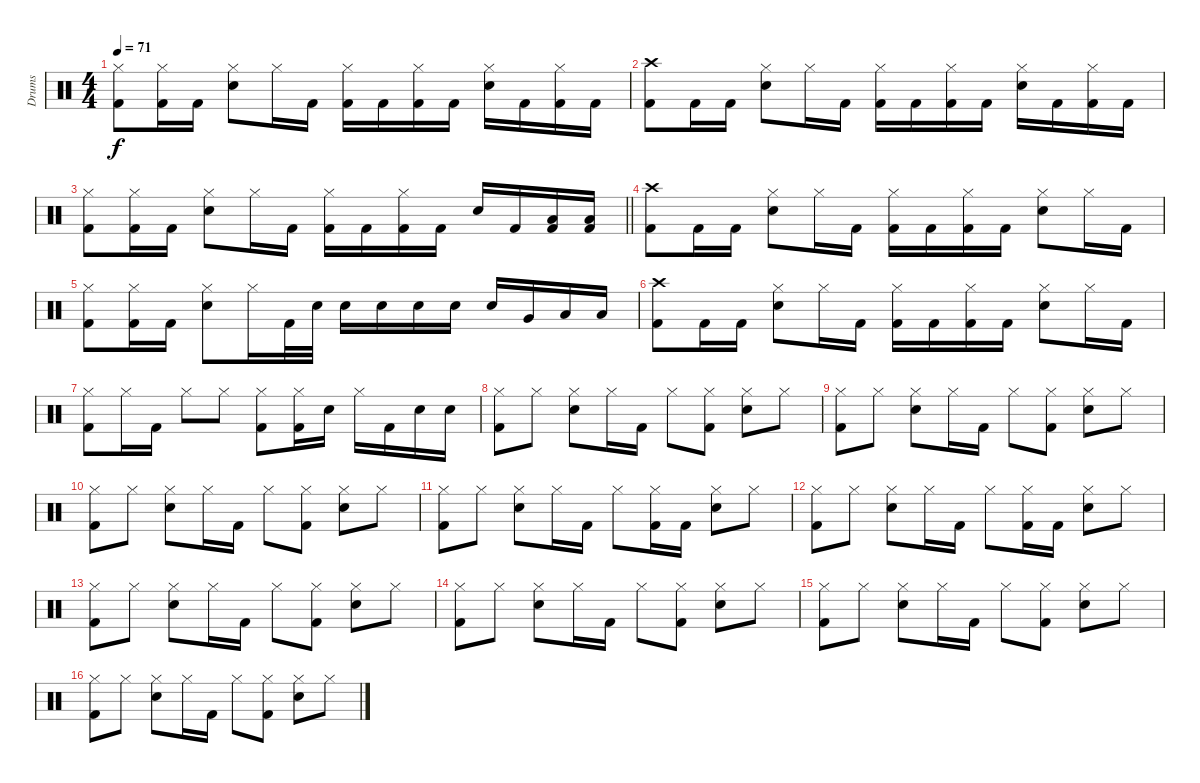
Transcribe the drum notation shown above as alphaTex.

\track ("Drums" "Drums") {instrument percussion}
\staff {score}
\articulation defaults
\ts (4 4)
\tempo 71
\clef neutral
\ks c
("Hi-Hat (closed)" "Kick (hit) 2").8{dy f} ("Hi-Hat (closed)" "Kick (hit) 2").16 "Kick (hit) 2".16 ("Hi-Hat (closed)" "Snare (hit) 2").8 "Hi-Hat (closed)".16 "Kick (hit) 2".16 ("Hi-Hat (closed)" "Kick (hit) 2").16 "Kick (hit) 2".16 ("Hi-Hat (closed)" "Kick (hit) 2").16 "Kick (hit) 2".16 ("Hi-Hat (closed)" "Snare (hit) 2").16 "Kick (hit) 2".16 ("Hi-Hat (closed)" "Kick (hit) 2").16 "Kick (hit) 2".16 |
("Crash high (hit)" "Kick (hit) 2").8 "Kick (hit) 2".16 "Kick (hit) 2".16 ("Hi-Hat (closed)" "Snare (hit) 2").8 "Hi-Hat (closed)".16 "Kick (hit) 2".16 ("Hi-Hat (closed)" "Kick (hit) 2").16 "Kick (hit) 2".16 ("Hi-Hat (closed)" "Kick (hit) 2").16 "Kick (hit) 2".16 ("Hi-Hat (closed)" "Snare (hit) 2").16 "Kick (hit) 2".16 ("Hi-Hat (closed)" "Kick (hit) 2").16 "Kick (hit) 2".16 |
\barLineRight lightlight
("Kick (hit) 2" "Hi-Hat (closed)").8 ("Hi-Hat (closed)" "Kick (hit) 2").16 "Kick (hit) 2".16 ("Hi-Hat (closed)" "Snare (hit) 2").8 "Hi-Hat (closed)".16 "Kick (hit) 2".16 ("Hi-Hat (closed)" "Kick (hit) 2").16 "Kick (hit) 2".16 ("Hi-Hat (closed)" "Kick (hit) 2").16 "Kick (hit) 2".16 "Snare (hit) 2".16 "Kick (hit) 2".16 ("Low Tom (hit)" "Kick (hit) 2").16 ("Low Tom (hit)" "Kick (hit) 2").16 |
("Crash high (hit)" "Kick (hit) 2").8 "Kick (hit) 2".16 "Kick (hit) 2".16 ("Snare (hit) 2" "Hi-Hat (closed)").8 "Hi-Hat (closed)".16 "Kick (hit) 2".16 ("Hi-Hat (closed)" "Kick (hit) 2").16 "Kick (hit) 2".16 ("Hi-Hat (closed)" "Kick (hit) 2").16 "Kick (hit) 2".16 ("Snare (hit) 2" "Hi-Hat (closed)").8 "Hi-Hat (closed)".16 "Kick (hit) 2".16 |
("Hi-Hat (closed)" "Kick (hit) 2").8 ("Hi-Hat (closed)" "Kick (hit) 2").16 "Kick (hit) 2".16 ("Hi-Hat (closed)" "Snare (hit) 2").8 "Hi-Hat (closed)".16 "Kick (hit) 2".32 "Snare (hit) 2".32 "Snare (hit) 2".16 "Snare (hit) 2".16 "Snare (hit) 2".16 "Snare (hit) 2".16 "Snare (hit) 2".16 "Very Low Tom (hit)".16 "Low Floor Tom (hit)".16 "Low Floor Tom (hit)".16 |
("Crash high (hit)" "Kick (hit) 2").8 "Kick (hit) 2".16 "Kick (hit) 2".16 ("Snare (hit) 2" "Hi-Hat (closed)").8 "Hi-Hat (closed)".16 "Kick (hit) 2".16 ("Hi-Hat (closed)" "Kick (hit) 2").16 "Kick (hit) 2".16 ("Hi-Hat (closed)" "Kick (hit) 2").16 "Kick (hit) 2".16 ("Snare (hit) 2" "Hi-Hat (closed)").8 "Hi-Hat (closed)".16 "Kick (hit) 2".16 |
("Hi-Hat (closed)" "Kick (hit) 2").8 "Hi-Hat (closed)".16 "Kick (hit) 2".16 "Hi-Hat (closed)".8 "Hi-Hat (closed)".8 ("Hi-Hat (closed)" "Kick (hit) 2").8 ("Hi-Hat (closed)" "Kick (hit) 2").16 "Snare (hit) 2".16 "Hi-Hat (closed)".16 "Kick (hit) 2".16 "Snare (hit) 2".16 "Snare (hit) 2".16 |
("Hi-Hat (closed)" "Kick (hit) 2").8 "Hi-Hat (closed)".8 ("Hi-Hat (closed)" "Snare (hit) 2").8 "Hi-Hat (closed)".16 "Kick (hit) 2".16 "Hi-Hat (closed)".8 ("Kick (hit) 2" "Hi-Hat (closed)").8 ("Hi-Hat (closed)" "Snare (hit) 2").8 "Hi-Hat (closed)".8 |
("Hi-Hat (closed)" "Kick (hit) 2").8 "Hi-Hat (closed)".8 ("Hi-Hat (closed)" "Snare (hit) 2").8 "Hi-Hat (closed)".16 "Kick (hit) 2".16 "Hi-Hat (closed)".8 ("Kick (hit) 2" "Hi-Hat (closed)").8 ("Hi-Hat (closed)" "Snare (hit) 2").8 "Hi-Hat (closed)".8 |
("Hi-Hat (closed)" "Kick (hit) 2").8 "Hi-Hat (closed)".8 ("Hi-Hat (closed)" "Snare (hit) 2").8 "Hi-Hat (closed)".16 "Kick (hit) 2".16 "Hi-Hat (closed)".8 ("Kick (hit) 2" "Hi-Hat (closed)").8 ("Hi-Hat (closed)" "Snare (hit) 2").8 "Hi-Hat (closed)".8 |
("Hi-Hat (closed)" "Kick (hit) 2").8 "Hi-Hat (closed)".8 ("Hi-Hat (closed)" "Snare (hit) 2").8 "Hi-Hat (closed)".16 "Kick (hit) 2".16 "Hi-Hat (closed)".8 ("Kick (hit) 2" "Hi-Hat (closed)").16 "Kick (hit) 2".16 ("Hi-Hat (closed)" "Snare (hit) 2").8 "Hi-Hat (closed)".8 |
("Hi-Hat (closed)" "Kick (hit) 2").8 "Hi-Hat (closed)".8 ("Hi-Hat (closed)" "Snare (hit) 2").8 "Hi-Hat (closed)".16 "Kick (hit) 2".16 "Hi-Hat (closed)".8 ("Kick (hit) 2" "Hi-Hat (closed)").16 "Kick (hit) 2".16 ("Hi-Hat (closed)" "Snare (hit) 2").8 "Hi-Hat (closed)".8 |
("Hi-Hat (closed)" "Kick (hit) 2").8 "Hi-Hat (closed)".8 ("Hi-Hat (closed)" "Snare (hit) 2").8 "Hi-Hat (closed)".16 "Kick (hit) 2".16 "Hi-Hat (closed)".8 ("Kick (hit) 2" "Hi-Hat (closed)").8 ("Hi-Hat (closed)" "Snare (hit) 2").8 "Hi-Hat (closed)".8 |
("Hi-Hat (closed)" "Kick (hit) 2").8 "Hi-Hat (closed)".8 ("Hi-Hat (closed)" "Snare (hit) 2").8 "Hi-Hat (closed)".16 "Kick (hit) 2".16 "Hi-Hat (closed)".8 ("Kick (hit) 2" "Hi-Hat (closed)").8 ("Hi-Hat (closed)" "Snare (hit) 2").8 "Hi-Hat (closed)".8 |
("Hi-Hat (closed)" "Kick (hit) 2").8 "Hi-Hat (closed)".8 ("Hi-Hat (closed)" "Snare (hit) 2").8 "Hi-Hat (closed)".16 "Kick (hit) 2".16 "Hi-Hat (closed)".8 ("Kick (hit) 2" "Hi-Hat (closed)").8 ("Hi-Hat (closed)" "Snare (hit) 2").8 "Hi-Hat (closed)".8 |
("Hi-Hat (closed)" "Kick (hit) 2").8 "Hi-Hat (closed)".8 ("Hi-Hat (closed)" "Snare (hit) 2").8 "Hi-Hat (closed)".16 "Kick (hit) 2".16 "Hi-Hat (closed)".8 ("Kick (hit) 2" "Hi-Hat (closed)").8 ("Hi-Hat (closed)" "Snare (hit) 2").8 "Hi-Hat (closed)".8
